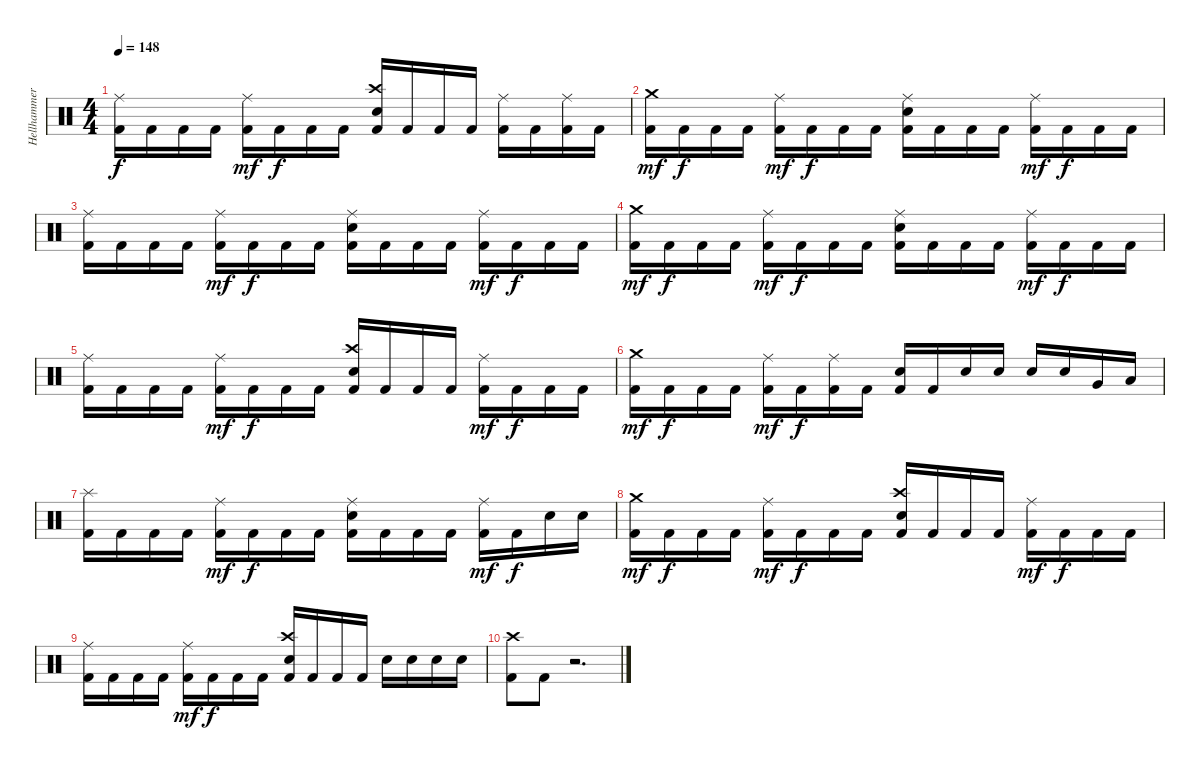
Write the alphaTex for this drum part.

\track ("Hellhammer" "Hellhammer") {instrument percussion}
\staff {score}
\articulation defaults
\ts (4 4)
\tempo 148
\clef neutral
\ks c
("Ride (middle)" "Kick (hit) 2").16{dy f} "Kick (hit) 2".16 "Kick (hit) 2".16 "Kick (hit) 2".16 ("Ride (middle)" "Kick (hit) 2").16{dy mf} "Kick (hit) 2".16{dy f} "Kick (hit) 2".16 "Kick (hit) 2".16 ("Crash high (hit)" "Snare (hit) 2" "Kick (hit) 2").16 "Kick (hit) 2".16 "Kick (hit) 2".16 "Kick (hit) 2".16 ("Ride (middle)" "Kick (hit) 2").16 "Kick (hit) 2".16 ("Ride (middle)" "Kick (hit) 2").16 "Kick (hit) 2".16 |
("Crash medium (hit)" "Kick (hit) 2").16{dy mf} "Kick (hit) 2".16{dy f} "Kick (hit) 2".16 "Kick (hit) 2".16 ("Ride (middle)" "Kick (hit) 2").16{dy mf} "Kick (hit) 2".16{dy f} "Kick (hit) 2".16 "Kick (hit) 2".16 ("Ride (middle)" "Snare (hit) 2" "Kick (hit) 2").16 "Kick (hit) 2".16 "Kick (hit) 2".16 "Kick (hit) 2".16 ("Ride (middle)" "Kick (hit) 2").16{dy mf} "Kick (hit) 2".16{dy f} "Kick (hit) 2".16 "Kick (hit) 2".16 |
("Ride (middle)" "Kick (hit) 2").16 "Kick (hit) 2".16 "Kick (hit) 2".16 "Kick (hit) 2".16 ("Ride (middle)" "Kick (hit) 2").16{dy mf} "Kick (hit) 2".16{dy f} "Kick (hit) 2".16 "Kick (hit) 2".16 ("Ride (middle)" "Snare (hit) 2" "Kick (hit) 2").16 "Kick (hit) 2".16 "Kick (hit) 2".16 "Kick (hit) 2".16 ("Ride (middle)" "Kick (hit) 2").16{dy mf} "Kick (hit) 2".16{dy f} "Kick (hit) 2".16 "Kick (hit) 2".16 |
("Crash medium (hit)" "Kick (hit) 2").16{dy mf} "Kick (hit) 2".16{dy f} "Kick (hit) 2".16 "Kick (hit) 2".16 ("Ride (middle)" "Kick (hit) 2").16{dy mf} "Kick (hit) 2".16{dy f} "Kick (hit) 2".16 "Kick (hit) 2".16 ("Ride (middle)" "Snare (hit) 2" "Kick (hit) 2").16 "Kick (hit) 2".16 "Kick (hit) 2".16 "Kick (hit) 2".16 ("Ride (middle)" "Kick (hit) 2").16{dy mf} "Kick (hit) 2".16{dy f} "Kick (hit) 2".16 "Kick (hit) 2".16 |
("Ride (middle)" "Kick (hit) 2").16 "Kick (hit) 2".16 "Kick (hit) 2".16 "Kick (hit) 2".16 ("Ride (middle)" "Kick (hit) 2").16{dy mf} "Kick (hit) 2".16{dy f} "Kick (hit) 2".16 "Kick (hit) 2".16 ("Crash high (hit)" "Snare (hit) 2" "Kick (hit) 2").16 "Kick (hit) 2".16 "Kick (hit) 2".16 "Kick (hit) 2".16 ("Ride (middle)" "Kick (hit) 2").16{dy mf} "Kick (hit) 2".16{dy f} "Kick (hit) 2".16 "Kick (hit) 2".16 |
("Crash medium (hit)" "Kick (hit) 2").16{dy mf} "Kick (hit) 2".16{dy f} "Kick (hit) 2".16 "Kick (hit) 2".16 ("Ride (middle)" "Kick (hit) 2").16{dy mf} "Kick (hit) 2".16{dy f} ("Ride (middle)" "Kick (hit) 2").16 "Kick (hit) 2".16 ("Snare (hit) 2" "Kick (hit) 2").16 "Kick (hit) 2".16 "Snare (hit) 2".16 "Snare (hit) 2".16 "Snare (hit) 2".16 "Snare (hit) 2".16 "Very Low Tom (hit)".16 "Low Floor Tom (hit)".16 |
("Splash (hit)" "Kick (hit) 2").16 "Kick (hit) 2".16 "Kick (hit) 2".16 "Kick (hit) 2".16 ("Ride (middle)" "Kick (hit) 2").16{dy mf} "Kick (hit) 2".16{dy f} "Kick (hit) 2".16 "Kick (hit) 2".16 ("Ride (middle)" "Snare (hit) 2" "Kick (hit) 2").16 "Kick (hit) 2".16 "Kick (hit) 2".16 "Kick (hit) 2".16 ("Ride (middle)" "Kick (hit) 2").16{dy mf} "Kick (hit) 2".16{dy f} "Snare (hit) 2".16 "Snare (hit) 2".16 |
("Crash medium (hit)" "Kick (hit) 2").16{dy mf} "Kick (hit) 2".16{dy f} "Kick (hit) 2".16 "Kick (hit) 2".16 ("Ride (middle)" "Kick (hit) 2").16{dy mf} "Kick (hit) 2".16{dy f} "Kick (hit) 2".16 "Kick (hit) 2".16 ("Crash high (hit)" "Snare (hit) 2" "Kick (hit) 2").16 "Kick (hit) 2".16 "Kick (hit) 2".16 "Kick (hit) 2".16 ("Ride (middle)" "Kick (hit) 2").16{dy mf} "Kick (hit) 2".16{dy f} "Kick (hit) 2".16 "Kick (hit) 2".16 |
("Ride (middle)" "Kick (hit) 2").16 "Kick (hit) 2".16 "Kick (hit) 2".16 "Kick (hit) 2".16 ("Ride (middle)" "Kick (hit) 2").16{dy mf} "Kick (hit) 2".16{dy f} "Kick (hit) 2".16 "Kick (hit) 2".16 ("Crash high (hit)" "Snare (hit) 2" "Kick (hit) 2").16 "Kick (hit) 2".16 "Kick (hit) 2".16 "Kick (hit) 2".16 "Snare (hit) 2".16 "Snare (hit) 2".16 "Snare (hit) 2".16 "Snare (hit) 2".16 |
("Crash high (hit)" "Kick (hit) 2").8 "Kick (hit) 2".8 r.2{d}
